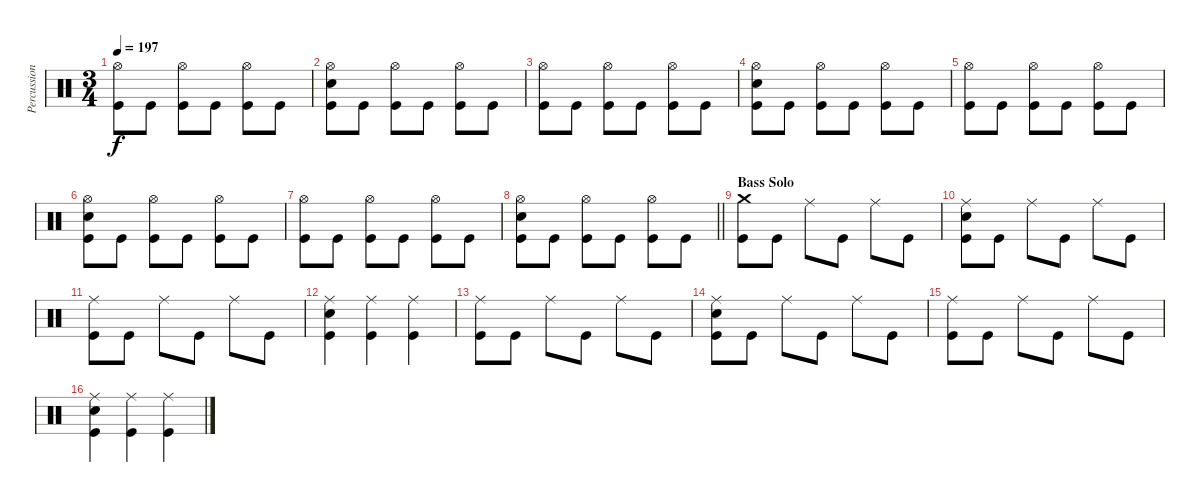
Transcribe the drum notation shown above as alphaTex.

\track ("Percussion" "Percussion") {instrument percussion}
\staff {score}
\articulation defaults
\ts (3 4)
\tempo 197
\clef neutral
\ks c
("Hi-Hat (open)" "Kick (hit)").8{dy f} "Kick (hit)".8 ("Hi-Hat (open)" "Kick (hit)").8 "Kick (hit)".8 ("Hi-Hat (open)" "Kick (hit)").8 "Kick (hit)".8 |
("Hi-Hat (open)" "Electric Snare (hit)" "Kick (hit)").8 "Kick (hit)".8 ("Hi-Hat (open)" "Kick (hit)").8 "Kick (hit)".8 ("Hi-Hat (open)" "Kick (hit)").8 "Kick (hit)".8 |
("Hi-Hat (open)" "Kick (hit)").8 "Kick (hit)".8 ("Hi-Hat (open)" "Kick (hit)").8 "Kick (hit)".8 ("Hi-Hat (open)" "Kick (hit)").8 "Kick (hit)".8 |
("Hi-Hat (open)" "Electric Snare (hit)" "Kick (hit)").8 "Kick (hit)".8 ("Hi-Hat (open)" "Kick (hit)").8 "Kick (hit)".8 ("Hi-Hat (open)" "Kick (hit)").8 "Kick (hit)".8 |
("Hi-Hat (open)" "Kick (hit)").8 "Kick (hit)".8 ("Hi-Hat (open)" "Kick (hit)").8 "Kick (hit)".8 ("Hi-Hat (open)" "Kick (hit)").8 "Kick (hit)".8 |
("Hi-Hat (open)" "Electric Snare (hit)" "Kick (hit)").8 "Kick (hit)".8 ("Hi-Hat (open)" "Kick (hit)").8 "Kick (hit)".8 ("Hi-Hat (open)" "Kick (hit)").8 "Kick (hit)".8 |
("Hi-Hat (open)" "Kick (hit)").8 "Kick (hit)".8 ("Hi-Hat (open)" "Kick (hit)").8 "Kick (hit)".8 ("Hi-Hat (open)" "Kick (hit)").8 "Kick (hit)".8 |
\barLineRight lightlight
("Hi-Hat (open)" "Electric Snare (hit)" "Kick (hit)").8 "Kick (hit)".8 ("Hi-Hat (open)" "Kick (hit)").8 "Kick (hit)".8 ("Hi-Hat (open)" "Kick (hit)").8 "Kick (hit)".8 |
\section ("" "Bass Solo")
("Crash medium (hit)" "Kick (hit)").8 "Kick (hit)".8 "Ride (middle)".8 "Kick (hit)".8 "Ride (middle)".8 "Kick (hit)".8 |
("Ride (middle)" "Electric Snare (hit)" "Kick (hit)").8 "Kick (hit)".8 "Ride (middle)".8 "Kick (hit)".8 "Ride (middle)".8 "Kick (hit)".8 |
("Ride (middle)" "Kick (hit)").8 "Kick (hit)".8 "Ride (middle)".8 "Kick (hit)".8 "Ride (middle)".8 "Kick (hit)".8 |
("Ride (middle)" "Electric Snare (hit)" "Kick (hit)").4 ("Ride (middle)" "Kick (hit)").4 ("Ride (middle)" "Kick (hit)").4 |
("Ride (middle)" "Kick (hit)").8 "Kick (hit)".8 "Ride (middle)".8 "Kick (hit)".8 "Ride (middle)".8 "Kick (hit)".8 |
("Ride (middle)" "Electric Snare (hit)" "Kick (hit)").8 "Kick (hit)".8 "Ride (middle)".8 "Kick (hit)".8 "Ride (middle)".8 "Kick (hit)".8 |
("Ride (middle)" "Kick (hit)").8 "Kick (hit)".8 "Ride (middle)".8 "Kick (hit)".8 "Ride (middle)".8 "Kick (hit)".8 |
("Ride (middle)" "Electric Snare (hit)" "Kick (hit)").4 ("Ride (middle)" "Kick (hit)").4 ("Ride (middle)" "Kick (hit)").4
